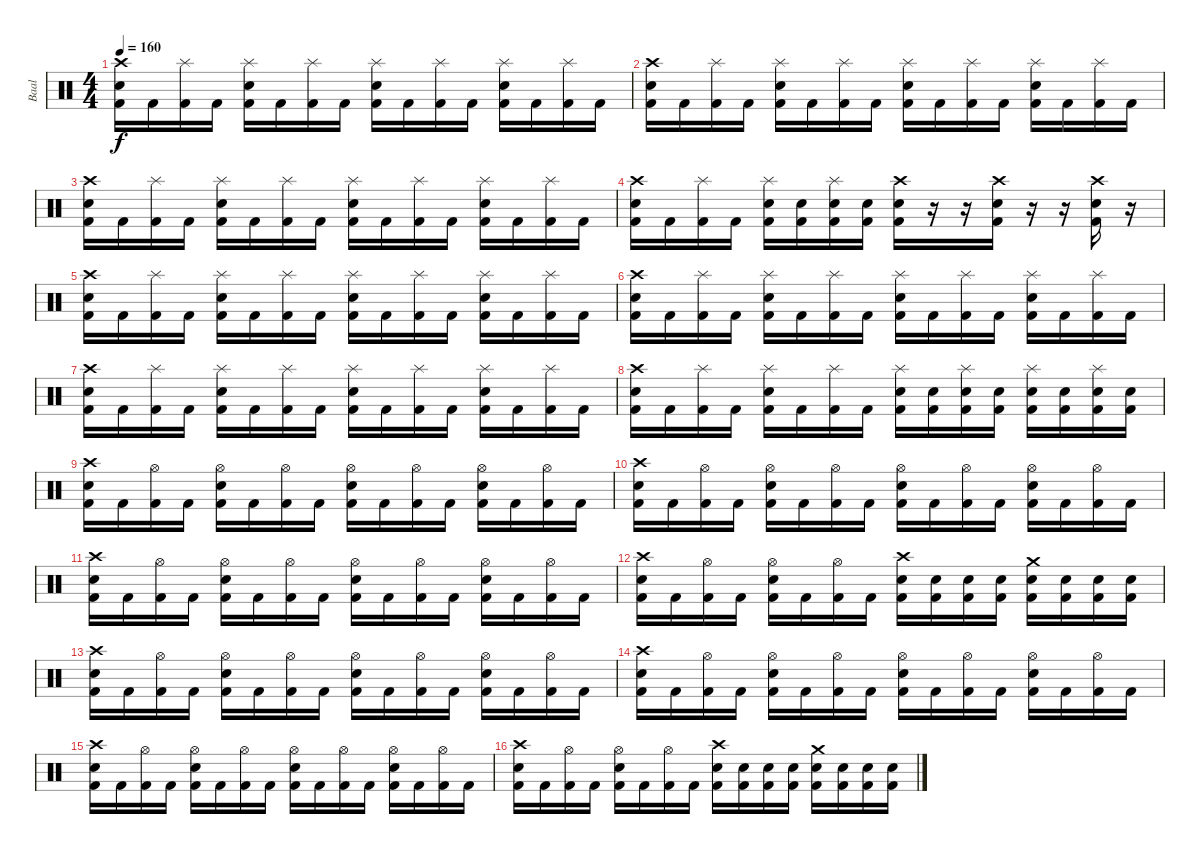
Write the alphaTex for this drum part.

\track ("Baal" "Baal") {instrument percussion}
\staff {score}
\articulation defaults
\ts (4 4)
\tempo 160
\clef neutral
\ks c
("Crash high (hit)" "Electric Snare (hit)" "Kick (hit) 2").16{dy f} "Kick (hit) 2".16 ("Splash (hit)" "Kick (hit) 2").16 "Kick (hit) 2".16 ("Splash (hit)" "Electric Snare (hit)" "Kick (hit) 2").16 "Kick (hit) 2".16 ("Splash (hit)" "Kick (hit) 2").16 "Kick (hit) 2".16 ("Splash (hit)" "Electric Snare (hit)" "Kick (hit) 2").16 "Kick (hit) 2".16 ("Splash (hit)" "Kick (hit) 2").16 "Kick (hit) 2".16 ("Splash (hit)" "Electric Snare (hit)" "Kick (hit) 2").16 "Kick (hit) 2".16 ("Splash (hit)" "Kick (hit) 2").16 "Kick (hit) 2".16 |
("Crash high (hit)" "Electric Snare (hit)" "Kick (hit) 2").16 "Kick (hit) 2".16 ("Splash (hit)" "Kick (hit) 2").16 "Kick (hit) 2".16 ("Splash (hit)" "Electric Snare (hit)" "Kick (hit) 2").16 "Kick (hit) 2".16 ("Splash (hit)" "Kick (hit) 2").16 "Kick (hit) 2".16 ("Splash (hit)" "Electric Snare (hit)" "Kick (hit) 2").16 "Kick (hit) 2".16 ("Splash (hit)" "Kick (hit) 2").16 "Kick (hit) 2".16 ("Splash (hit)" "Electric Snare (hit)" "Kick (hit) 2").16 "Kick (hit) 2".16 ("Splash (hit)" "Kick (hit) 2").16 "Kick (hit) 2".16 |
("Crash high (hit)" "Electric Snare (hit)" "Kick (hit) 2").16 "Kick (hit) 2".16 ("Splash (hit)" "Kick (hit) 2").16 "Kick (hit) 2".16 ("Splash (hit)" "Electric Snare (hit)" "Kick (hit) 2").16 "Kick (hit) 2".16 ("Splash (hit)" "Kick (hit) 2").16 "Kick (hit) 2".16 ("Splash (hit)" "Electric Snare (hit)" "Kick (hit) 2").16 "Kick (hit) 2".16 ("Splash (hit)" "Kick (hit) 2").16 "Kick (hit) 2".16 ("Splash (hit)" "Electric Snare (hit)" "Kick (hit) 2").16 "Kick (hit) 2".16 ("Splash (hit)" "Kick (hit) 2").16 "Kick (hit) 2".16 |
("Crash high (hit)" "Electric Snare (hit)" "Kick (hit) 2").16 "Kick (hit) 2".16 ("Splash (hit)" "Kick (hit) 2").16 "Kick (hit) 2".16 ("Splash (hit)" "Electric Snare (hit)" "Kick (hit) 2").16 ("Electric Snare (hit)" "Kick (hit) 2").16 ("Splash (hit)" "Electric Snare (hit)" "Kick (hit) 2").16 ("Electric Snare (hit)" "Kick (hit) 2").16 ("Crash high (hit)" "Electric Snare (hit)" "Kick (hit) 2").16 r.16 r.16 ("Crash high (hit)" "Electric Snare (hit)" "Kick (hit) 2").16 r.16 r.16 ("Crash high (hit)" "Electric Snare (hit)" "Kick (hit) 2").16 r.16 |
("Crash high (hit)" "Electric Snare (hit)" "Kick (hit) 2").16 "Kick (hit) 2".16 ("Splash (hit)" "Kick (hit) 2").16 "Kick (hit) 2".16 ("Splash (hit)" "Electric Snare (hit)" "Kick (hit) 2").16 "Kick (hit) 2".16 ("Splash (hit)" "Kick (hit) 2").16 "Kick (hit) 2".16 ("Splash (hit)" "Electric Snare (hit)" "Kick (hit) 2").16 "Kick (hit) 2".16 ("Splash (hit)" "Kick (hit) 2").16 "Kick (hit) 2".16 ("Splash (hit)" "Electric Snare (hit)" "Kick (hit) 2").16 "Kick (hit) 2".16 ("Splash (hit)" "Kick (hit) 2").16 "Kick (hit) 2".16 |
("Crash high (hit)" "Electric Snare (hit)" "Kick (hit) 2").16 "Kick (hit) 2".16 ("Splash (hit)" "Kick (hit) 2").16 "Kick (hit) 2".16 ("Splash (hit)" "Electric Snare (hit)" "Kick (hit) 2").16 "Kick (hit) 2".16 ("Splash (hit)" "Kick (hit) 2").16 "Kick (hit) 2".16 ("Splash (hit)" "Electric Snare (hit)" "Kick (hit) 2").16 "Kick (hit) 2".16 ("Splash (hit)" "Kick (hit) 2").16 "Kick (hit) 2".16 ("Splash (hit)" "Electric Snare (hit)" "Kick (hit) 2").16 "Kick (hit) 2".16 ("Splash (hit)" "Kick (hit) 2").16 "Kick (hit) 2".16 |
("Crash high (hit)" "Electric Snare (hit)" "Kick (hit) 2").16 "Kick (hit) 2".16 ("Splash (hit)" "Kick (hit) 2").16 "Kick (hit) 2".16 ("Splash (hit)" "Electric Snare (hit)" "Kick (hit) 2").16 "Kick (hit) 2".16 ("Splash (hit)" "Kick (hit) 2").16 "Kick (hit) 2".16 ("Splash (hit)" "Electric Snare (hit)" "Kick (hit) 2").16 "Kick (hit) 2".16 ("Splash (hit)" "Kick (hit) 2").16 "Kick (hit) 2".16 ("Splash (hit)" "Electric Snare (hit)" "Kick (hit) 2").16 "Kick (hit) 2".16 ("Splash (hit)" "Kick (hit) 2").16 "Kick (hit) 2".16 |
("Crash high (hit)" "Electric Snare (hit)" "Kick (hit) 2").16 "Kick (hit) 2".16 ("Splash (hit)" "Kick (hit) 2").16 "Kick (hit) 2".16 ("Splash (hit)" "Electric Snare (hit)" "Kick (hit) 2").16 "Kick (hit) 2".16 ("Splash (hit)" "Kick (hit) 2").16 "Kick (hit) 2".16 ("Splash (hit)" "Electric Snare (hit)" "Kick (hit) 2").16 ("Electric Snare (hit)" "Kick (hit) 2").16 ("Splash (hit)" "Electric Snare (hit)" "Kick (hit) 2").16 ("Electric Snare (hit)" "Kick (hit) 2").16 ("Splash (hit)" "Electric Snare (hit)" "Kick (hit) 2").16 ("Electric Snare (hit)" "Kick (hit) 2").16 ("Splash (hit)" "Electric Snare (hit)" "Kick (hit) 2").16 ("Electric Snare (hit)" "Kick (hit) 2").16 |
("Crash high (hit)" "Electric Snare (hit)" "Kick (hit) 2").16 "Kick (hit) 2".16 ("Hi-Hat (open)" "Kick (hit) 2").16 "Kick (hit) 2".16 ("Hi-Hat (open)" "Electric Snare (hit)" "Kick (hit) 2").16 "Kick (hit) 2".16 ("Hi-Hat (open)" "Kick (hit) 2").16 "Kick (hit) 2".16 ("Hi-Hat (open)" "Electric Snare (hit)" "Kick (hit) 2").16 "Kick (hit) 2".16 ("Hi-Hat (open)" "Kick (hit) 2").16 "Kick (hit) 2".16 ("Hi-Hat (open)" "Electric Snare (hit)" "Kick (hit) 2").16 "Kick (hit) 2".16 ("Hi-Hat (open)" "Kick (hit) 2").16 "Kick (hit) 2".16 |
("Crash high (hit)" "Electric Snare (hit)" "Kick (hit) 2").16 "Kick (hit) 2".16 ("Hi-Hat (open)" "Kick (hit) 2").16 "Kick (hit) 2".16 ("Hi-Hat (open)" "Electric Snare (hit)" "Kick (hit) 2").16 "Kick (hit) 2".16 ("Hi-Hat (open)" "Kick (hit) 2").16 "Kick (hit) 2".16 ("Hi-Hat (open)" "Electric Snare (hit)" "Kick (hit) 2").16 "Kick (hit) 2".16 ("Hi-Hat (open)" "Kick (hit) 2").16 "Kick (hit) 2".16 ("Hi-Hat (open)" "Electric Snare (hit)" "Kick (hit) 2").16 "Kick (hit) 2".16 ("Hi-Hat (open)" "Kick (hit) 2").16 "Kick (hit) 2".16 |
("Crash high (hit)" "Electric Snare (hit)" "Kick (hit) 2").16 "Kick (hit) 2".16 ("Hi-Hat (open)" "Kick (hit) 2").16 "Kick (hit) 2".16 ("Hi-Hat (open)" "Electric Snare (hit)" "Kick (hit) 2").16 "Kick (hit) 2".16 ("Hi-Hat (open)" "Kick (hit) 2").16 "Kick (hit) 2".16 ("Hi-Hat (open)" "Electric Snare (hit)" "Kick (hit) 2").16 "Kick (hit) 2".16 ("Hi-Hat (open)" "Kick (hit) 2").16 "Kick (hit) 2".16 ("Hi-Hat (open)" "Electric Snare (hit)" "Kick (hit) 2").16 "Kick (hit) 2".16 ("Hi-Hat (open)" "Kick (hit) 2").16 "Kick (hit) 2".16 |
("Crash high (hit)" "Electric Snare (hit)" "Kick (hit) 2").16 "Kick (hit) 2".16 ("Hi-Hat (open)" "Kick (hit) 2").16 "Kick (hit) 2".16 ("Hi-Hat (open)" "Electric Snare (hit)" "Kick (hit) 2").16 "Kick (hit) 2".16 ("Hi-Hat (open)" "Kick (hit) 2").16 "Kick (hit) 2".16 ("Crash high (hit)" "Electric Snare (hit)" "Kick (hit) 2").16 ("Electric Snare (hit)" "Kick (hit) 2").16 ("Electric Snare (hit)" "Kick (hit) 2").16 ("Electric Snare (hit)" "Kick (hit) 2").16 ("Crash medium (hit)" "Electric Snare (hit)" "Kick (hit) 2").16 ("Electric Snare (hit)" "Kick (hit) 2").16 ("Electric Snare (hit)" "Kick (hit) 2").16 ("Electric Snare (hit)" "Kick (hit) 2").16 |
("Crash high (hit)" "Electric Snare (hit)" "Kick (hit) 2").16 "Kick (hit) 2".16 ("Hi-Hat (open)" "Kick (hit) 2").16 "Kick (hit) 2".16 ("Hi-Hat (open)" "Electric Snare (hit)" "Kick (hit) 2").16 "Kick (hit) 2".16 ("Hi-Hat (open)" "Kick (hit) 2").16 "Kick (hit) 2".16 ("Hi-Hat (open)" "Electric Snare (hit)" "Kick (hit) 2").16 "Kick (hit) 2".16 ("Hi-Hat (open)" "Kick (hit) 2").16 "Kick (hit) 2".16 ("Hi-Hat (open)" "Electric Snare (hit)" "Kick (hit) 2").16 "Kick (hit) 2".16 ("Hi-Hat (open)" "Kick (hit) 2").16 "Kick (hit) 2".16 |
("Crash high (hit)" "Electric Snare (hit)" "Kick (hit) 2").16 "Kick (hit) 2".16 ("Hi-Hat (open)" "Kick (hit) 2").16 "Kick (hit) 2".16 ("Hi-Hat (open)" "Electric Snare (hit)" "Kick (hit) 2").16 "Kick (hit) 2".16 ("Hi-Hat (open)" "Kick (hit) 2").16 "Kick (hit) 2".16 ("Hi-Hat (open)" "Electric Snare (hit)" "Kick (hit) 2").16 "Kick (hit) 2".16 ("Hi-Hat (open)" "Kick (hit) 2").16 "Kick (hit) 2".16 ("Hi-Hat (open)" "Electric Snare (hit)" "Kick (hit) 2").16 "Kick (hit) 2".16 ("Hi-Hat (open)" "Kick (hit) 2").16 "Kick (hit) 2".16 |
("Crash high (hit)" "Electric Snare (hit)" "Kick (hit) 2").16 "Kick (hit) 2".16 ("Hi-Hat (open)" "Kick (hit) 2").16 "Kick (hit) 2".16 ("Hi-Hat (open)" "Electric Snare (hit)" "Kick (hit) 2").16 "Kick (hit) 2".16 ("Hi-Hat (open)" "Kick (hit) 2").16 "Kick (hit) 2".16 ("Hi-Hat (open)" "Electric Snare (hit)" "Kick (hit) 2").16 "Kick (hit) 2".16 ("Hi-Hat (open)" "Kick (hit) 2").16 "Kick (hit) 2".16 ("Hi-Hat (open)" "Electric Snare (hit)" "Kick (hit) 2").16 "Kick (hit) 2".16 ("Hi-Hat (open)" "Kick (hit) 2").16 "Kick (hit) 2".16 |
("Crash high (hit)" "Electric Snare (hit)" "Kick (hit) 2").16 "Kick (hit) 2".16 ("Hi-Hat (open)" "Kick (hit) 2").16 "Kick (hit) 2".16 ("Hi-Hat (open)" "Electric Snare (hit)" "Kick (hit) 2").16 "Kick (hit) 2".16 ("Hi-Hat (open)" "Kick (hit) 2").16 "Kick (hit) 2".16 ("Crash high (hit)" "Electric Snare (hit)" "Kick (hit) 2").16 ("Electric Snare (hit)" "Kick (hit) 2").16 ("Electric Snare (hit)" "Kick (hit) 2").16 ("Electric Snare (hit)" "Kick (hit) 2").16 ("Crash medium (hit)" "Electric Snare (hit)" "Kick (hit) 2").16 ("Electric Snare (hit)" "Kick (hit) 2").16 ("Electric Snare (hit)" "Kick (hit) 2").16 ("Electric Snare (hit)" "Kick (hit) 2").16
